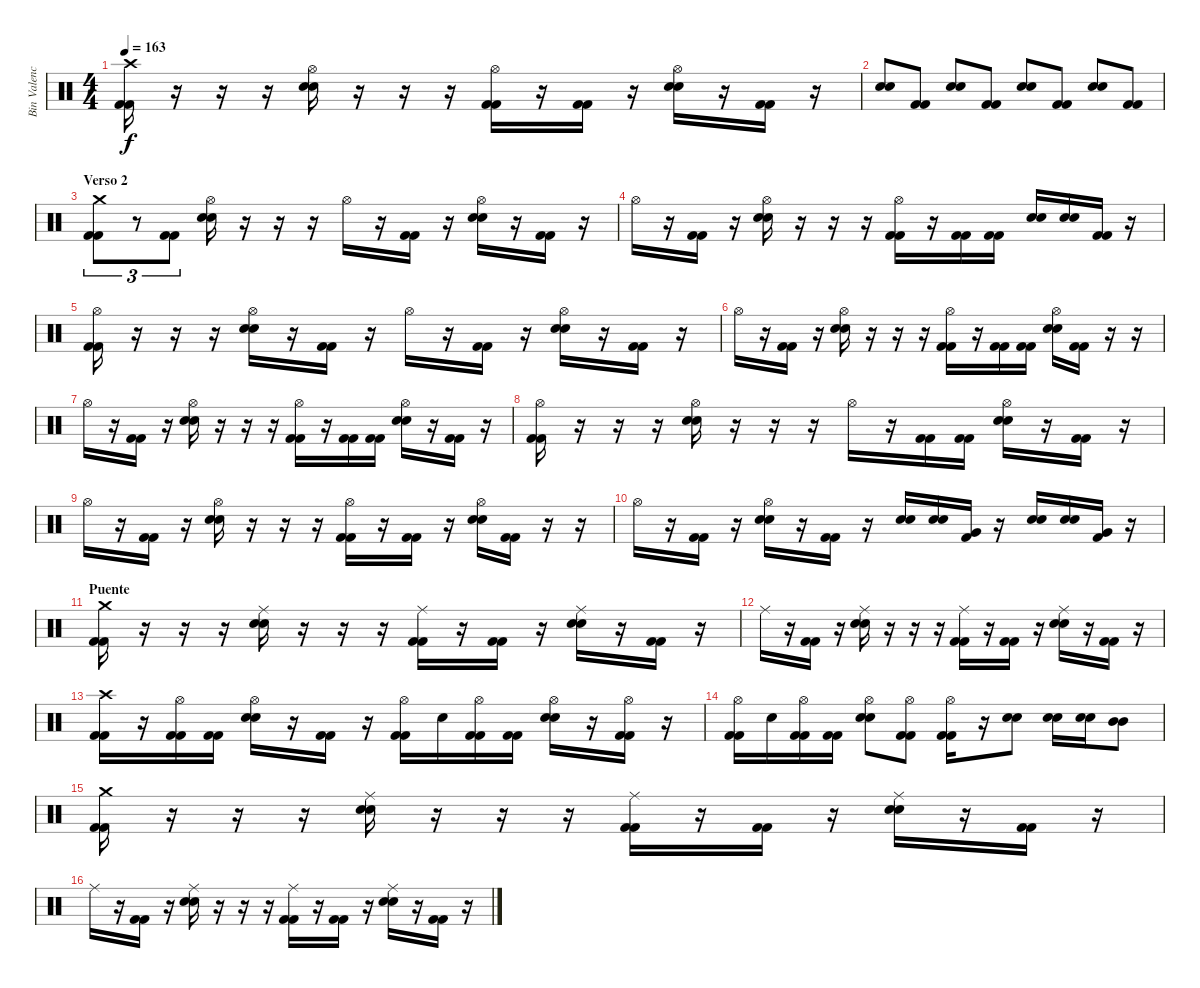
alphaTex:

\track ("Bin Valencia" "Bin Valenc") {instrument percussion}
\staff {score}
\articulation defaults
\ts (4 4)
\tempo 163
\clef neutral
\ks c
("Crash high (hit)" "Kick (hit) 2" "Kick (hit) 2").16{dy f} r.16 r.16 r.16 ("Hi-Hat (open)" "Snare (hit) 2" "Snare (hit) 2").16 r.16 r.16 r.16 ("Hi-Hat (open)" "Kick (hit) 2" "Kick (hit) 2").16 r.16 ("Kick (hit) 2" "Kick (hit) 2").16 r.16 ("Hi-Hat (open)" "Snare (hit) 2" "Snare (hit) 2").16 r.16 ("Kick (hit) 2" "Kick (hit) 2").16 r.16 |
("Snare (hit) 2" "Snare (hit) 2").8 ("Kick (hit) 2" "Kick (hit) 2").8 ("Snare (hit) 2" "Snare (hit) 2").8 ("Kick (hit) 2" "Kick (hit) 2").8 ("Snare (hit) 2" "Snare (hit) 2").8 ("Kick (hit) 2" "Kick (hit) 2").8 ("Snare (hit) 2" "Snare (hit) 2").8 ("Kick (hit) 2" "Kick (hit) 2").8 |
\section ("" "Verso 2")
("Crash medium (hit)" "Kick (hit) 2" "Kick (hit) 2").8{tu (3 2)} r.8{tu (3 2)} ("Kick (hit) 2" "Kick (hit) 2").8{tu (3 2)} ("Hi-Hat (open)" "Snare (hit) 2" "Snare (hit) 2").16 r.16 r.16 r.16 "Hi-Hat (open)".16 r.16 ("Kick (hit) 2" "Kick (hit) 2").16 r.16 ("Hi-Hat (open)" "Snare (hit) 2" "Snare (hit) 2").16 r.16 ("Kick (hit) 2" "Kick (hit) 2").16 r.16 |
"Hi-Hat (open)".16 r.16 ("Kick (hit) 2" "Kick (hit) 2").16 r.16 ("Hi-Hat (open)" "Snare (hit) 2" "Snare (hit) 2").16 r.16 r.16 r.16 ("Hi-Hat (open)" "Kick (hit) 2" "Kick (hit) 2").16 r.16 ("Kick (hit) 2" "Kick (hit) 2").16 ("Kick (hit) 2" "Kick (hit) 2").16 ("Electric Snare (hit)" "Electric Snare (hit)").16 ("Electric Snare (hit)" "Electric Snare (hit)").16 ("Kick (hit) 2" "Kick (hit) 2").16 r.16 |
("Hi-Hat (open)" "Kick (hit) 2" "Kick (hit) 2").16 r.16 r.16 r.16 ("Hi-Hat (open)" "Snare (hit) 2" "Snare (hit) 2").16 r.16 ("Kick (hit) 2" "Kick (hit) 2").16 r.16 "Hi-Hat (open)".16 r.16 ("Kick (hit) 2" "Kick (hit) 2").16 r.16 ("Hi-Hat (open)" "Snare (hit) 2" "Snare (hit) 2").16 r.16 ("Kick (hit) 2" "Kick (hit) 2").16 r.16 |
"Hi-Hat (open)".16 r.16 ("Kick (hit) 2" "Kick (hit) 2").16 r.16 ("Hi-Hat (open)" "Snare (hit) 2" "Snare (hit) 2").16 r.16 r.16 r.16 ("Hi-Hat (open)" "Kick (hit) 2" "Kick (hit) 2").16 r.16 ("Kick (hit) 2" "Kick (hit) 2").16 ("Kick (hit) 2" "Kick (hit) 2").16 ("Hi-Hat (open)" "Snare (hit) 2" "Snare (hit) 2").16 ("Kick (hit) 2" "Kick (hit) 2").16 r.16 r.16 |
"Hi-Hat (open)".16 r.16 ("Kick (hit) 2" "Kick (hit) 2").16 r.16 ("Hi-Hat (open)" "Snare (hit) 2" "Snare (hit) 2").16 r.16 r.16 r.16 ("Hi-Hat (open)" "Kick (hit) 2" "Kick (hit) 2").16 r.16 ("Kick (hit) 2" "Kick (hit) 2").16 ("Kick (hit) 2" "Kick (hit) 2").16 ("Hi-Hat (open)" "Snare (hit) 2" "Snare (hit) 2").16 r.16 ("Kick (hit) 2" "Kick (hit) 2").16 r.16 |
("Hi-Hat (open)" "Kick (hit) 2" "Kick (hit) 2").16 r.16 r.16 r.16 ("Hi-Hat (open)" "Snare (hit) 2" "Snare (hit) 2").16 r.16 r.16 r.16 "Hi-Hat (open)".16 r.16 ("Kick (hit) 2" "Kick (hit) 2").16 ("Kick (hit) 2" "Kick (hit) 2").16 ("Hi-Hat (open)" "Snare (hit) 2" "Snare (hit) 2").16 r.16 ("Kick (hit) 2" "Kick (hit) 2").16 r.16 |
"Hi-Hat (open)".16 r.16 ("Kick (hit) 2" "Kick (hit) 2").16 r.16 ("Hi-Hat (open)" "Snare (hit) 2" "Snare (hit) 2").16 r.16 r.16 r.16 ("Hi-Hat (open)" "Kick (hit) 2" "Kick (hit) 2").16 r.16 ("Kick (hit) 2" "Kick (hit) 2").16 r.16 ("Hi-Hat (open)" "Snare (hit) 2" "Snare (hit) 2").16 ("Kick (hit) 2" "Kick (hit) 2").16 r.16 r.16 |
"Hi-Hat (open)".16 r.16 ("Kick (hit) 2" "Kick (hit) 2").16 r.16 ("Hi-Hat (open)" "Snare (hit) 2" "Snare (hit) 2").16 r.16 ("Kick (hit) 2" "Kick (hit) 2").16 r.16 ("Snare (hit) 2" "Snare (hit) 2").16 ("Snare (hit) 2" "Snare (hit) 2").16 ("Very Low Tom (hit)" "Kick (hit) 2").16 r.16 ("Snare (hit) 2" "Snare (hit) 2").16 ("Snare (hit) 2" "Snare (hit) 2").16 ("Very Low Tom (hit)" "Kick (hit) 2").16 r.16 |
\section ("" "Puente")
("Crash medium (hit)" "Kick (hit) 2" "Kick (hit) 2").16 r.16 r.16 r.16 ("Ride (middle)" "Snare (hit) 2" "Snare (hit) 2").16 r.16 r.16 r.16 ("Ride (middle)" "Kick (hit) 2" "Kick (hit) 2").16 r.16 ("Kick (hit) 2" "Kick (hit) 2").16 r.16 ("Ride (middle)" "Snare (hit) 2" "Snare (hit) 2").16 r.16 ("Kick (hit) 2" "Kick (hit) 2").16 r.16 |
"Ride (middle)".16 r.16 ("Kick (hit) 2" "Kick (hit) 2").16 r.16 ("Ride (middle)" "Snare (hit) 2" "Snare (hit) 2").16 r.16 r.16 r.16 ("Ride (middle)" "Kick (hit) 2" "Kick (hit) 2").16 r.16 ("Kick (hit) 2" "Kick (hit) 2").16 r.16 ("Ride (middle)" "Snare (hit) 2" "Snare (hit) 2").16 r.16 ("Kick (hit) 2" "Kick (hit) 2").16 r.16 |
("Crash high (hit)" "Kick (hit) 2" "Kick (hit) 2").16 r.16 ("Hi-Hat (open)" "Kick (hit) 2" "Kick (hit) 2").16 ("Kick (hit) 2" "Kick (hit) 2").16 ("Hi-Hat (open)" "Snare (hit) 2" "Snare (hit) 2").16 r.16 ("Kick (hit) 2" "Kick (hit) 2").16 r.16 ("Hi-Hat (open)" "Kick (hit) 2" "Kick (hit) 2").16 "Snare (hit) 2".16 ("Hi-Hat (open)" "Kick (hit) 2" "Kick (hit) 2").16 ("Kick (hit) 2" "Kick (hit) 2").16 ("Hi-Hat (open)" "Snare (hit) 2" "Snare (hit) 2").16 r.16 ("Hi-Hat (open)" "Kick (hit) 2" "Kick (hit) 2").16 r.16 |
("Hi-Hat (open)" "Kick (hit) 2" "Kick (hit) 2").16 "Snare (hit) 2".16 ("Hi-Hat (open)" "Kick (hit) 2" "Kick (hit) 2").16 ("Kick (hit) 2" "Kick (hit) 2").16 ("Hi-Hat (open)" "Snare (hit) 2" "Snare (hit) 2").8 ("Hi-Hat (open)" "Kick (hit) 2" "Kick (hit) 2").8 ("Hi-Hat (open)" "Kick (hit) 2" "Kick (hit) 2").16 r.16 ("Snare (hit) 2" "Snare (hit) 2").8 ("Snare (hit) 2" "Snare (hit) 2").16 ("Snare (hit) 2" "Snare (hit) 2").16 ("Mid Tom (hit)" "Mid Tom (hit)").8 |
("Crash medium (hit)" "Kick (hit) 2" "Kick (hit) 2").16 r.16 r.16 r.16 ("Ride (middle)" "Snare (hit) 2" "Snare (hit) 2").16 r.16 r.16 r.16 ("Ride (middle)" "Kick (hit) 2" "Kick (hit) 2").16 r.16 ("Kick (hit) 2" "Kick (hit) 2").16 r.16 ("Ride (middle)" "Snare (hit) 2" "Snare (hit) 2").16 r.16 ("Kick (hit) 2" "Kick (hit) 2").16 r.16 |
"Ride (middle)".16 r.16 ("Kick (hit) 2" "Kick (hit) 2").16 r.16 ("Ride (middle)" "Snare (hit) 2" "Snare (hit) 2").16 r.16 r.16 r.16 ("Ride (middle)" "Kick (hit) 2" "Kick (hit) 2").16 r.16 ("Kick (hit) 2" "Kick (hit) 2").16 r.16 ("Ride (middle)" "Snare (hit) 2" "Snare (hit) 2").16 r.16 ("Kick (hit) 2" "Kick (hit) 2").16 r.16
